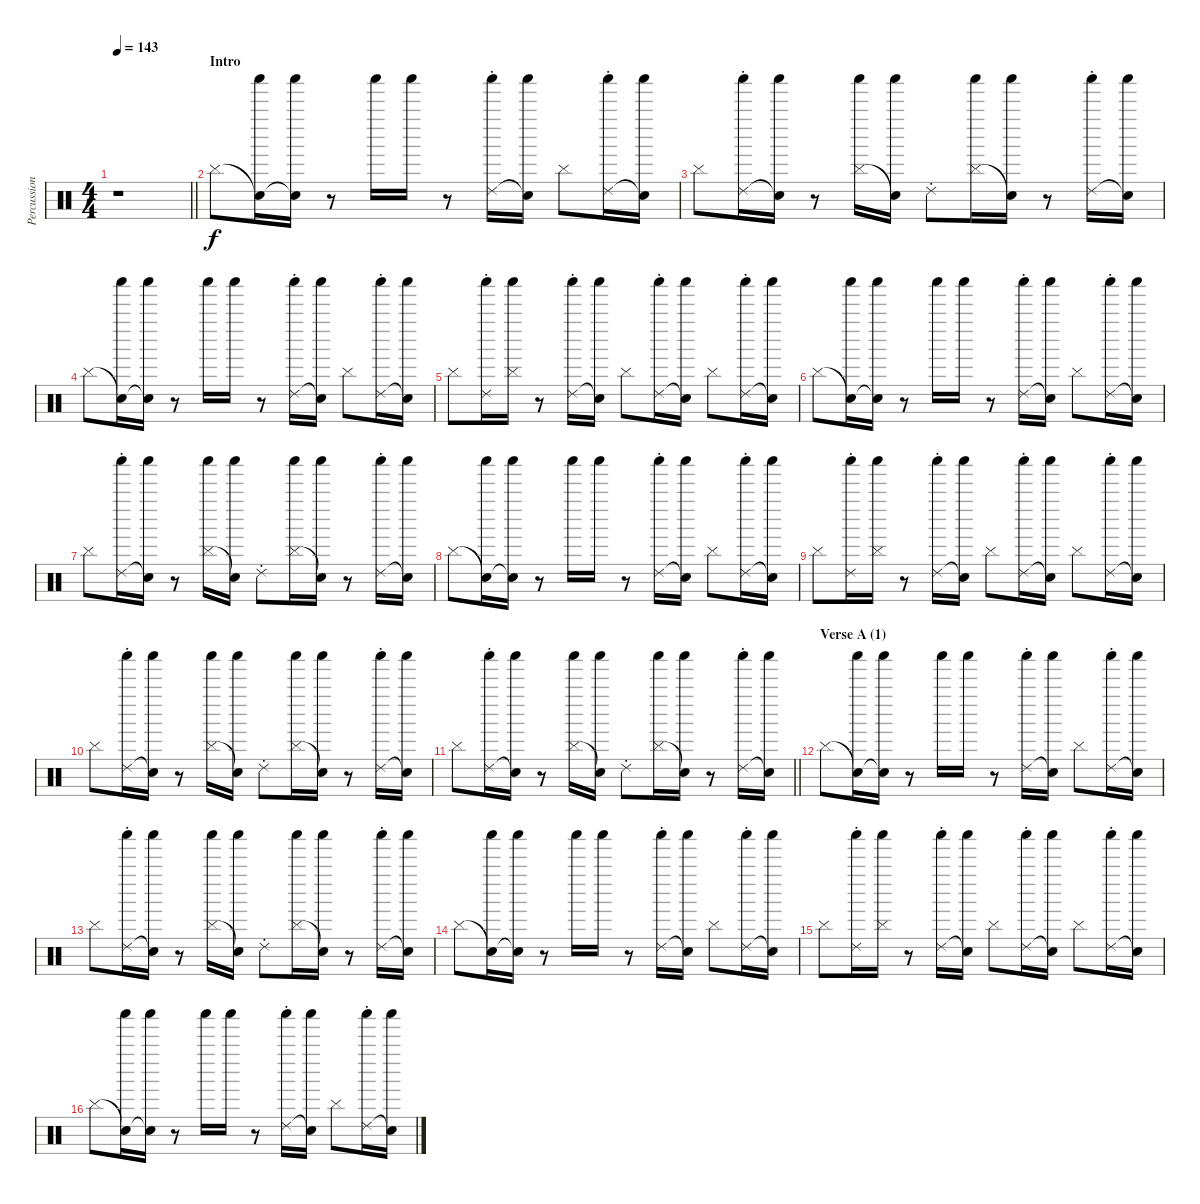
\track ("Percussion" "Percussion") {instrument percussion}
\staff {score}
\articulation defaults
\ts (4 4)
\tempo 143
\clef neutral
\barLineRight lightlight
\ks aminor
r.1{dy f} |
\section ("" "Intro")
"Cymbal (hit)".8 ("Snare (hit)"{t} "Shaker (hit)").16 ("Snare (hit)"{t} "Shaker (hit)").16 r.8 "Shaker (hit)".16 "Shaker (hit)".16 r.8 ("Ride (choke) 2" "Shaker (hit)").16 ("Snare (hit)"{t} "Shaker (hit)").16 "Cymbal (hit)".8 ("Ride (choke) 2" "Shaker (hit)").16 ("Snare (hit)"{t} "Shaker (hit)").16 |
"Cymbal (hit)".8 ("Ride (choke) 2" "Shaker (hit)").16 ("Snare (hit)"{t} "Shaker (hit)").16 r.8 ("Cymbal (hit)" "Shaker (hit)").16 ("Snare (hit)"{t} "Shaker (hit)").16 "Ride (choke) 2".8 ("Cymbal (hit)" "Shaker (hit)").16 ("Snare (hit)"{t} "Shaker (hit)").16 r.8 ("Ride (choke) 2" "Shaker (hit)").16 ("Snare (hit)"{t} "Shaker (hit)").16 |
"Cymbal (hit)".8 ("Snare (hit)"{t} "Shaker (hit)").16 ("Snare (hit)"{t} "Shaker (hit)").16 r.8 "Shaker (hit)".16 "Shaker (hit)".16 r.8 ("Ride (choke) 2" "Shaker (hit)").16 ("Snare (hit)"{t} "Shaker (hit)").16 "Cymbal (hit)".8 ("Ride (choke) 2" "Shaker (hit)").16 ("Snare (hit)"{t} "Shaker (hit)").16 |
"Cymbal (hit)".8 ("Ride (choke) 2" "Shaker (hit)").16 ("Cymbal (hit)" "Shaker (hit)").16 r.8 ("Ride (choke) 2" "Shaker (hit)").16 ("Snare (hit)"{t} "Shaker (hit)").16 "Cymbal (hit)".8 ("Ride (choke) 2" "Shaker (hit)").16 ("Snare (hit)"{t} "Shaker (hit)").16 "Cymbal (hit)".8 ("Ride (choke) 2" "Shaker (hit)").16 ("Snare (hit)"{t} "Shaker (hit)").16 |
"Cymbal (hit)".8 ("Snare (hit)"{t} "Shaker (hit)").16 ("Snare (hit)"{t} "Shaker (hit)").16 r.8 "Shaker (hit)".16 "Shaker (hit)".16 r.8 ("Ride (choke) 2" "Shaker (hit)").16 ("Snare (hit)"{t} "Shaker (hit)").16 "Cymbal (hit)".8 ("Ride (choke) 2" "Shaker (hit)").16 ("Snare (hit)"{t} "Shaker (hit)").16 |
"Cymbal (hit)".8 ("Ride (choke) 2" "Shaker (hit)").16 ("Snare (hit)"{t} "Shaker (hit)").16 r.8 ("Cymbal (hit)" "Shaker (hit)").16 ("Snare (hit)"{t} "Shaker (hit)").16 "Ride (choke) 2".8 ("Cymbal (hit)" "Shaker (hit)").16 ("Snare (hit)"{t} "Shaker (hit)").16 r.8 ("Ride (choke) 2" "Shaker (hit)").16 ("Snare (hit)"{t} "Shaker (hit)").16 |
"Cymbal (hit)".8 ("Snare (hit)"{t} "Shaker (hit)").16 ("Snare (hit)"{t} "Shaker (hit)").16 r.8 "Shaker (hit)".16 "Shaker (hit)".16 r.8 ("Ride (choke) 2" "Shaker (hit)").16 ("Snare (hit)"{t} "Shaker (hit)").16 "Cymbal (hit)".8 ("Ride (choke) 2" "Shaker (hit)").16 ("Snare (hit)"{t} "Shaker (hit)").16 |
"Cymbal (hit)".8 ("Ride (choke) 2" "Shaker (hit)").16 ("Cymbal (hit)" "Shaker (hit)").16 r.8 ("Ride (choke) 2" "Shaker (hit)").16 ("Snare (hit)"{t} "Shaker (hit)").16 "Cymbal (hit)".8 ("Ride (choke) 2" "Shaker (hit)").16 ("Snare (hit)"{t} "Shaker (hit)").16 "Cymbal (hit)".8 ("Ride (choke) 2" "Shaker (hit)").16 ("Snare (hit)"{t} "Shaker (hit)").16 |
"Cymbal (hit)".8 ("Ride (choke) 2" "Shaker (hit)").16 ("Snare (hit)"{t} "Shaker (hit)").16 r.8 ("Cymbal (hit)" "Shaker (hit)").16 ("Snare (hit)"{t} "Shaker (hit)").16 "Ride (choke) 2".8 ("Cymbal (hit)" "Shaker (hit)").16 ("Snare (hit)"{t} "Shaker (hit)").16 r.8 ("Ride (choke) 2" "Shaker (hit)").16 ("Snare (hit)"{t} "Shaker (hit)").16 |
\barLineRight lightlight "Cymbal (hit)".8
("Ride (choke) 2" "Shaker (hit)").16 ("Snare (hit)"{t} "Shaker (hit)").16 r.8 ("Cymbal (hit)" "Shaker (hit)").16 ("Snare (hit)"{t} "Shaker (hit)").16 "Ride (choke) 2".8 ("Cymbal (hit)" "Shaker (hit)").16 ("Snare (hit)"{t} "Shaker (hit)").16 r.8 ("Ride (choke) 2" "Shaker (hit)").16 ("Snare (hit)"{t} "Shaker (hit)").16 |
\section ("" "Verse A (1)")
"Cymbal (hit)".8 ("Snare (hit)"{t} "Shaker (hit)").16 ("Snare (hit)"{t} "Shaker (hit)").16 r.8 "Shaker (hit)".16 "Shaker (hit)".16 r.8 ("Ride (choke) 2" "Shaker (hit)").16 ("Snare (hit)"{t} "Shaker (hit)").16 "Cymbal (hit)".8 ("Ride (choke) 2" "Shaker (hit)").16 ("Snare (hit)"{t} "Shaker (hit)").16 |
"Cymbal (hit)".8 ("Ride (choke) 2" "Shaker (hit)").16 ("Snare (hit)"{t} "Shaker (hit)").16 r.8 ("Cymbal (hit)" "Shaker (hit)").16 ("Snare (hit)"{t} "Shaker (hit)").16 "Ride (choke) 2".8 ("Cymbal (hit)" "Shaker (hit)").16 ("Snare (hit)"{t} "Shaker (hit)").16 r.8 ("Ride (choke) 2" "Shaker (hit)").16 ("Snare (hit)"{t} "Shaker (hit)").16 |
"Cymbal (hit)".8 ("Snare (hit)"{t} "Shaker (hit)").16 ("Snare (hit)"{t} "Shaker (hit)").16 r.8 "Shaker (hit)".16 "Shaker (hit)".16 r.8 ("Ride (choke) 2" "Shaker (hit)").16 ("Snare (hit)"{t} "Shaker (hit)").16 "Cymbal (hit)".8 ("Ride (choke) 2" "Shaker (hit)").16 ("Snare (hit)"{t} "Shaker (hit)").16 |
"Cymbal (hit)".8 ("Ride (choke) 2" "Shaker (hit)").16 ("Cymbal (hit)" "Shaker (hit)").16 r.8 ("Ride (choke) 2" "Shaker (hit)").16 ("Snare (hit)"{t} "Shaker (hit)").16 "Cymbal (hit)".8 ("Ride (choke) 2" "Shaker (hit)").16 ("Snare (hit)"{t} "Shaker (hit)").16 "Cymbal (hit)".8 ("Ride (choke) 2" "Shaker (hit)").16 ("Snare (hit)"{t} "Shaker (hit)").16 |
"Cymbal (hit)".8 ("Snare (hit)"{t} "Shaker (hit)").16 ("Snare (hit)"{t} "Shaker (hit)").16 r.8 "Shaker (hit)".16 "Shaker (hit)".16 r.8 ("Ride (choke) 2" "Shaker (hit)").16 ("Snare (hit)"{t} "Shaker (hit)").16 "Cymbal (hit)".8 ("Ride (choke) 2" "Shaker (hit)").16 ("Snare (hit)"{t} "Shaker (hit)").16
